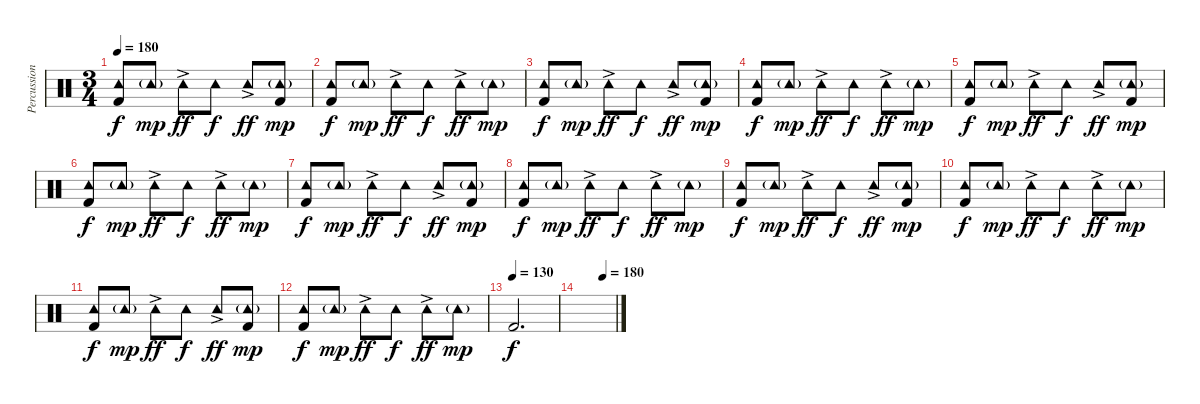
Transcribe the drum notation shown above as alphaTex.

\track ("Percussion" "Percussion") {instrument percussion}
\staff {score}
\articulation defaults
\ts (3 4)
\tempo 180
\clef neutral
\ks c
("Tambourine (hit)" "Kick (hit) 2").8{dy f} "Tambourine (hit)"{g}.8{dy mp} "Tambourine (hit)"{ac}.8{dy ff volume 10} "Tambourine (hit)".8{dy f volume 6} "Tambourine (hit)"{ac}.8{dy ff volume 10} ("Tambourine (hit)"{g} "Kick (hit) 2").8{dy mp} |
("Tambourine (hit)" "Kick (hit) 2").8{dy f} "Tambourine (hit)"{g}.8{dy mp} "Tambourine (hit)"{ac}.8{dy ff volume 10} "Tambourine (hit)".8{dy f volume 6} "Tambourine (hit)"{ac}.8{dy ff volume 10} "Tambourine (hit)"{g}.8{dy mp} |
("Tambourine (hit)" "Kick (hit) 2").8{dy f} "Tambourine (hit)"{g}.8{dy mp} "Tambourine (hit)"{ac}.8{dy ff volume 10} "Tambourine (hit)".8{dy f volume 6} "Tambourine (hit)"{ac}.8{dy ff volume 10} ("Tambourine (hit)"{g} "Kick (hit) 2").8{dy mp} |
("Tambourine (hit)" "Kick (hit) 2").8{dy f} "Tambourine (hit)"{g}.8{dy mp} "Tambourine (hit)"{ac}.8{dy ff volume 10} "Tambourine (hit)".8{dy f volume 6} "Tambourine (hit)"{ac}.8{dy ff volume 10} "Tambourine (hit)"{g}.8{dy mp} |
("Tambourine (hit)" "Kick (hit) 2").8{dy f} "Tambourine (hit)"{g}.8{dy mp} "Tambourine (hit)"{ac}.8{dy ff volume 10} "Tambourine (hit)".8{dy f volume 6} "Tambourine (hit)"{ac}.8{dy ff volume 10} ("Tambourine (hit)"{g} "Kick (hit) 2").8{dy mp} |
("Tambourine (hit)" "Kick (hit) 2").8{dy f} "Tambourine (hit)"{g}.8{dy mp} "Tambourine (hit)"{ac}.8{dy ff volume 10} "Tambourine (hit)".8{dy f volume 6} "Tambourine (hit)"{ac}.8{dy ff volume 10} "Tambourine (hit)"{g}.8{dy mp} |
("Tambourine (hit)" "Kick (hit) 2").8{dy f} "Tambourine (hit)"{g}.8{dy mp} "Tambourine (hit)"{ac}.8{dy ff volume 10} "Tambourine (hit)".8{dy f volume 6} "Tambourine (hit)"{ac}.8{dy ff volume 10} ("Tambourine (hit)"{g} "Kick (hit) 2").8{dy mp} |
("Tambourine (hit)" "Kick (hit) 2").8{dy f} "Tambourine (hit)"{g}.8{dy mp} "Tambourine (hit)"{ac}.8{dy ff volume 10} "Tambourine (hit)".8{dy f volume 6} "Tambourine (hit)"{ac}.8{dy ff volume 10} "Tambourine (hit)"{g}.8{dy mp} |
("Tambourine (hit)" "Kick (hit) 2").8{dy f} "Tambourine (hit)"{g}.8{dy mp} "Tambourine (hit)"{ac}.8{dy ff volume 10} "Tambourine (hit)".8{dy f volume 6} "Tambourine (hit)"{ac}.8{dy ff volume 10} ("Tambourine (hit)"{g} "Kick (hit) 2").8{dy mp} |
("Tambourine (hit)" "Kick (hit) 2").8{dy f} "Tambourine (hit)"{g}.8{dy mp} "Tambourine (hit)"{ac}.8{dy ff volume 10} "Tambourine (hit)".8{dy f volume 6} "Tambourine (hit)"{ac}.8{dy ff volume 10} "Tambourine (hit)"{g}.8{dy mp} |
("Tambourine (hit)" "Kick (hit) 2").8{dy f} "Tambourine (hit)"{g}.8{dy mp} "Tambourine (hit)"{ac}.8{dy ff volume 10} "Tambourine (hit)".8{dy f volume 6} "Tambourine (hit)"{ac}.8{dy ff volume 10} ("Tambourine (hit)"{g} "Kick (hit) 2").8{dy mp} |
("Tambourine (hit)" "Kick (hit) 2").8{dy f} "Tambourine (hit)"{g}.8{dy mp} "Tambourine (hit)"{ac}.8{dy ff volume 10} "Tambourine (hit)".8{dy f volume 6} "Tambourine (hit)"{ac}.8{dy ff volume 10} "Tambourine (hit)"{g}.8{dy mp} |
\tempo (130)
"Kick (hit) 2".2{d dy f} |
\tempo (180 0.6666666666666666)
